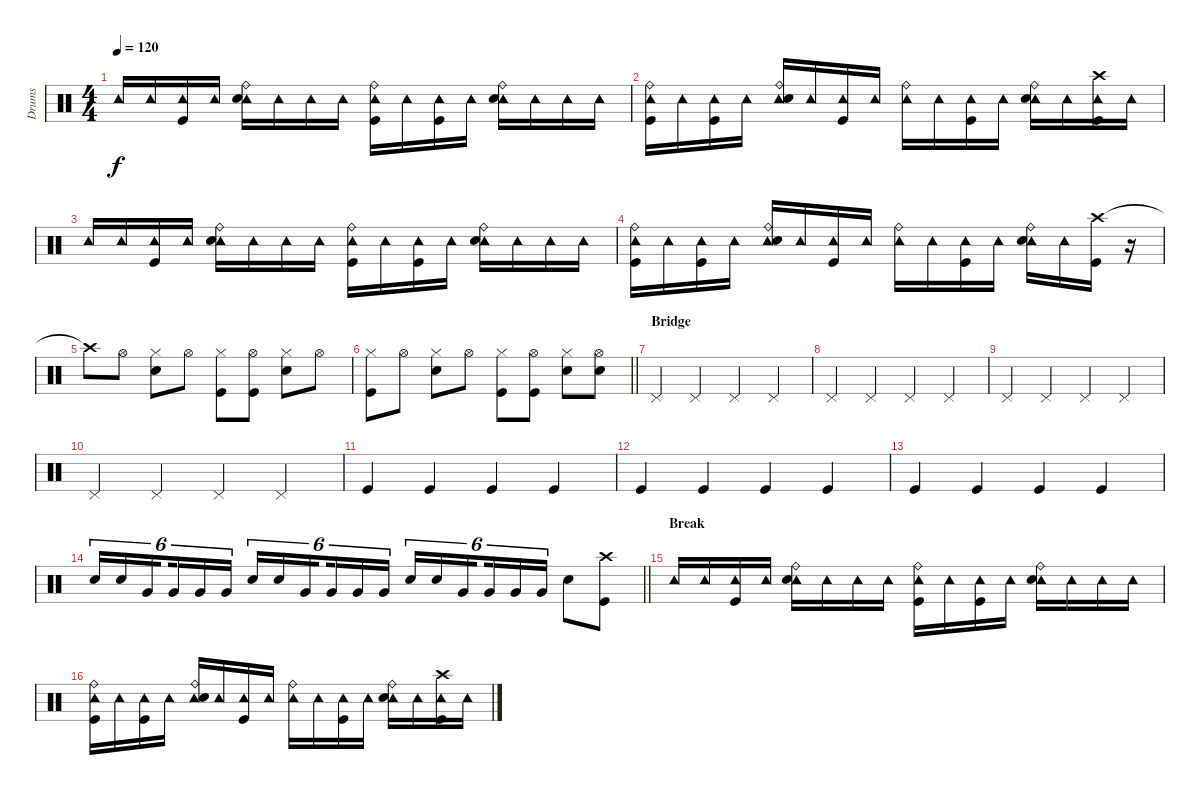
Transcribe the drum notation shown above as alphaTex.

\track ("Drums" "Drums") {instrument percussion}
\staff {score}
\articulation defaults
\ts (4 4)
\tempo 120
\clef neutral
\ks c "Tambourine (hit)".16{dy f} "Tambourine (hit)".16
("Tambourine (hit)" "Kick (hit)").16 "Tambourine (hit)".16 ("Tambourine (hit)" "Ride (bell)" "Snare (hit) 2").16 "Tambourine (hit)".16 "Tambourine (hit)".16 "Tambourine (hit)".16 ("Tambourine (hit)" "Ride (bell)" "Kick (hit)").16 "Tambourine (hit)".16 ("Tambourine (hit)" "Kick (hit)").16 "Tambourine (hit)".16 ("Tambourine (hit)" "Ride (bell)" "Snare (hit) 2").16 "Tambourine (hit)".16 "Tambourine (hit)".16 "Tambourine (hit)".16 |
("Tambourine (hit)" "Ride (bell)" "Kick (hit)").16 "Tambourine (hit)".16 ("Tambourine (hit)" "Kick (hit)").16 "Tambourine (hit)".16 ("Tambourine (hit)" "Ride (bell)" "Snare (hit) 2").16 "Tambourine (hit)".16 ("Tambourine (hit)" "Kick (hit)").16 "Tambourine (hit)".16 ("Tambourine (hit)" "Ride (bell)").16 "Tambourine (hit)".16 ("Tambourine (hit)" "Kick (hit)").16 "Tambourine (hit)".16 ("Tambourine (hit)" "Ride (bell)" "Snare (hit) 2").16 "Tambourine (hit)".16 ("Tambourine (hit)" "Crash high (hit)" "Kick (hit)").16 "Tambourine (hit)".16 |
"Tambourine (hit)".16 "Tambourine (hit)".16 ("Tambourine (hit)" "Kick (hit)").16 "Tambourine (hit)".16 ("Tambourine (hit)" "Ride (bell)" "Snare (hit) 2").16 "Tambourine (hit)".16 "Tambourine (hit)".16 "Tambourine (hit)".16 ("Tambourine (hit)" "Ride (bell)" "Kick (hit)").16 "Tambourine (hit)".16 ("Tambourine (hit)" "Kick (hit)").16 "Tambourine (hit)".16 ("Tambourine (hit)" "Ride (bell)" "Snare (hit) 2").16 "Tambourine (hit)".16 "Tambourine (hit)".16 "Tambourine (hit)".16 |
("Tambourine (hit)" "Ride (bell)" "Kick (hit)").16 "Tambourine (hit)".16 ("Tambourine (hit)" "Kick (hit)").16 "Tambourine (hit)".16 ("Tambourine (hit)" "Ride (bell)" "Snare (hit) 2").16 "Tambourine (hit)".16 ("Tambourine (hit)" "Kick (hit)").16 "Tambourine (hit)".16 ("Tambourine (hit)" "Ride (bell)").16 "Tambourine (hit)".16 ("Tambourine (hit)" "Kick (hit)").16 "Tambourine (hit)".16 ("Tambourine (hit)" "Ride (bell)" "Snare (hit) 2").16 "Tambourine (hit)".16 ("Crash high (hit)" "Kick (hit)").16 r.16 |
"Crash high (hit)"{t}.8 "Hi-Hat (open)".8 ("Hi-Hat (closed)" "Snare (hit) 2").8 "Hi-Hat (open)".8 ("Hi-Hat (closed)" "Kick (hit)").8 ("Hi-Hat (open)" "Kick (hit)").8 ("Hi-Hat (closed)" "Snare (hit) 2").8 "Hi-Hat (open)".8 |
\barLineRight lightlight
("Hi-Hat (closed)" "Kick (hit)").8 "Hi-Hat (open)".8 ("Hi-Hat (closed)" "Snare (hit) 2").8 "Hi-Hat (open)".8 ("Hi-Hat (closed)" "Kick (hit)").8 ("Hi-Hat (open)" "Kick (hit)").8 ("Hi-Hat (closed)" "Snare (hit) 2").8 ("Hi-Hat (open)" "Snare (hit) 2").8 |
\section ("" "Bridge")
"Pedal Hi-Hat (hit)".4 "Pedal Hi-Hat (hit)".4 "Pedal Hi-Hat (hit)".4 "Pedal Hi-Hat (hit)".4 |
"Pedal Hi-Hat (hit)".4 "Pedal Hi-Hat (hit)".4 "Pedal Hi-Hat (hit)".4 "Pedal Hi-Hat (hit)".4 |
"Pedal Hi-Hat (hit)".4 "Pedal Hi-Hat (hit)".4 "Pedal Hi-Hat (hit)".4 "Pedal Hi-Hat (hit)".4 |
"Pedal Hi-Hat (hit)".4 "Pedal Hi-Hat (hit)".4 "Pedal Hi-Hat (hit)".4 "Pedal Hi-Hat (hit)".4 |
"Kick (hit)".4 "Kick (hit)".4 "Kick (hit)".4 "Kick (hit)".4 |
"Kick (hit)".4 "Kick (hit)".4 "Kick (hit)".4 "Kick (hit)".4 |
"Kick (hit)".4 "Kick (hit)".4 "Kick (hit)".4 "Kick (hit)".4 |
\barLineRight lightlight "Snare (hit) 2".16{tu (6 4)} "Snare (hit) 2".16{tu (6 4)} "Very Low Tom (hit)".16{tu (6 4) beam splitsecondary} "Very Low Tom (hit)".16{tu (6 4)} "Very Low Tom (hit)".16{tu (6 4)} "Very Low Tom (hit)".16{tu (6 4)} "Snare (hit) 2".16{tu (6 4)} "Snare (hit) 2".16{tu (6 4)} "Very Low Tom (hit)".16{tu (6 4) beam splitsecondary} "Very Low Tom (hit)".16{tu (6 4)} "Very Low Tom (hit)".16{tu (6 4)} "Very Low Tom (hit)".16{tu (6 4)} "Snare (hit) 2".16{tu (6 4)} "Snare (hit) 2".16{tu (6 4)} "Very Low Tom (hit)".16{tu (6 4) beam splitsecondary} "Very Low Tom (hit)".16{tu (6 4)} "Very Low Tom (hit)".16{tu (6 4)} "Very Low Tom (hit)".16{tu (6 4)} "Snare (hit) 2".8
("Crash high (hit)" "Kick (hit)").8 |
\section ("" "Break")
"Tambourine (hit)".16 "Tambourine (hit)".16 ("Tambourine (hit)" "Kick (hit)").16 "Tambourine (hit)".16 ("Tambourine (hit)" "Ride (bell)" "Snare (hit) 2").16 "Tambourine (hit)".16 "Tambourine (hit)".16 "Tambourine (hit)".16 ("Tambourine (hit)" "Ride (bell)" "Kick (hit)").16 "Tambourine (hit)".16 ("Tambourine (hit)" "Kick (hit)").16 "Tambourine (hit)".16 ("Tambourine (hit)" "Ride (bell)" "Snare (hit) 2").16 "Tambourine (hit)".16 "Tambourine (hit)".16 "Tambourine (hit)".16 |
("Tambourine (hit)" "Ride (bell)" "Kick (hit)").16 "Tambourine (hit)".16 ("Tambourine (hit)" "Kick (hit)").16 "Tambourine (hit)".16 ("Tambourine (hit)" "Ride (bell)" "Snare (hit) 2").16 "Tambourine (hit)".16 ("Tambourine (hit)" "Kick (hit)").16 "Tambourine (hit)".16 ("Tambourine (hit)" "Ride (bell)").16 "Tambourine (hit)".16 ("Tambourine (hit)" "Kick (hit)").16 "Tambourine (hit)".16 ("Tambourine (hit)" "Ride (bell)" "Snare (hit) 2").16 "Tambourine (hit)".16 ("Tambourine (hit)" "Crash high (hit)" "Kick (hit)").16 "Tambourine (hit)".16
